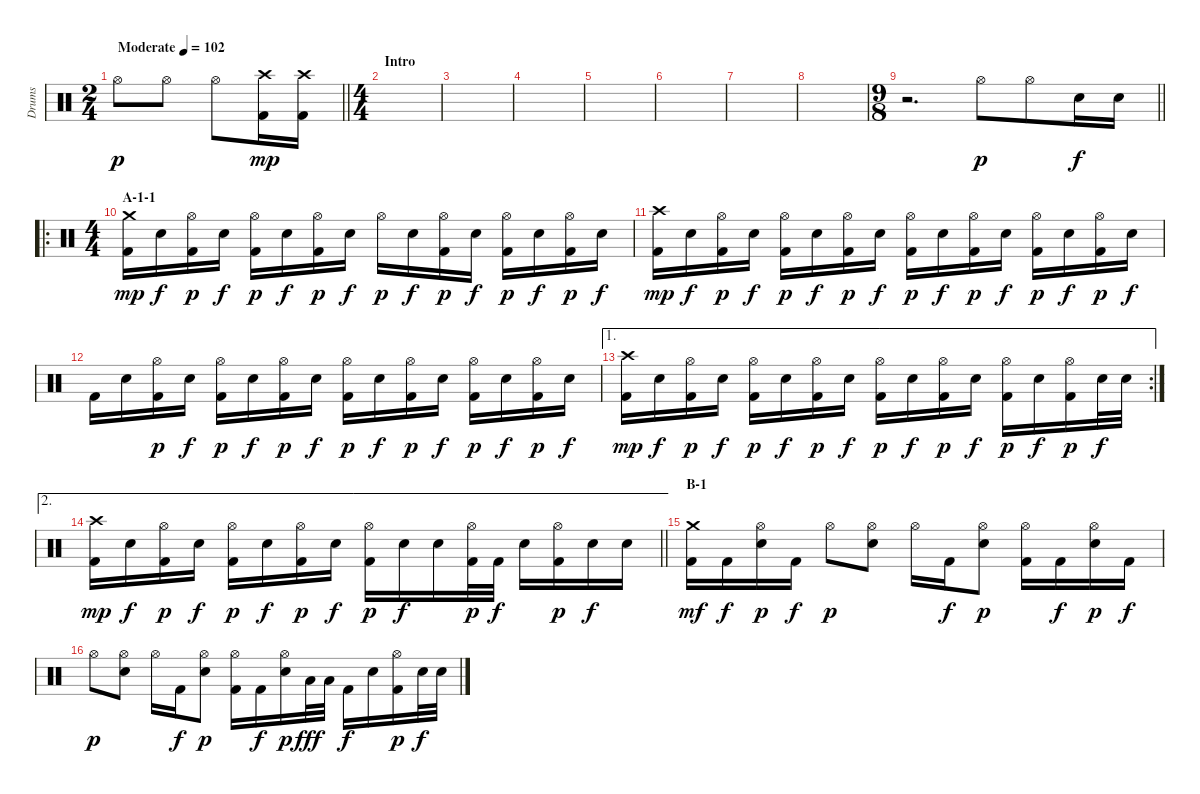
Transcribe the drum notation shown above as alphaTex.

\track ("Drums" "Drums") {instrument percussion}
\staff {score}
\articulation defaults
\ts (2 4)
\tempo (102 "Moderate")
\clef neutral
\barLineRight lightlight
\ks c "Hi-Hat (open)".8{dy p} "Hi-Hat (open)".8 "Hi-Hat (open)".8
("Crash high (hit)" "Kick (hit) 2").16{dy mp} ("Crash high (hit)" "Kick (hit) 2").16 |
\ts (4 4)
\section ("" "Intro")
|
|
|
|
|
|
|
\ts (9 8)
\barLineRight lightlight
r.2{d} "Hi-Hat (open)".8{dy p} "Hi-Hat (open)".8 "Electric Snare (hit)".16{dy f} "Electric Snare (hit)".16 |
\ro
\ts (4 4)
\section ("" "A-1-1")
("Crash medium (hit)" "Kick (hit) 2").16{dy mp} "Electric Snare (hit)".16{dy f} ("Hi-Hat (open)" "Kick (hit) 2").16{dy p} "Electric Snare (hit)".16{dy f} ("Hi-Hat (open)" "Kick (hit) 2").16{dy p} "Electric Snare (hit)".16{dy f} ("Hi-Hat (open)" "Kick (hit) 2").16{dy p} "Electric Snare (hit)".16{dy f} "Hi-Hat (open)".16{dy p} "Electric Snare (hit)".16{dy f} ("Hi-Hat (open)" "Kick (hit) 2").16{dy p} "Electric Snare (hit)".16{dy f} ("Hi-Hat (open)" "Kick (hit) 2").16{dy p} "Electric Snare (hit)".16{dy f} ("Hi-Hat (open)" "Kick (hit) 2").16{dy p} "Electric Snare (hit)".16{dy f} |
("Crash high (hit)" "Kick (hit) 2").16{dy mp} "Electric Snare (hit)".16{dy f} ("Hi-Hat (open)" "Kick (hit) 2").16{dy p} "Electric Snare (hit)".16{dy f} ("Hi-Hat (open)" "Kick (hit) 2").16{dy p} "Electric Snare (hit)".16{dy f} ("Hi-Hat (open)" "Kick (hit) 2").16{dy p} "Electric Snare (hit)".16{dy f} ("Hi-Hat (open)" "Kick (hit) 2").16{dy p} "Electric Snare (hit)".16{dy f} ("Hi-Hat (open)" "Kick (hit) 2").16{dy p} "Electric Snare (hit)".16{dy f} ("Hi-Hat (open)" "Kick (hit) 2").16{dy p} "Electric Snare (hit)".16{dy f} ("Hi-Hat (open)" "Kick (hit) 2").16{dy p} "Electric Snare (hit)".16{dy f} |
"Kick (hit) 2".16 "Electric Snare (hit)".16 ("Hi-Hat (open)" "Kick (hit) 2").16{dy p} "Electric Snare (hit)".16{dy f} ("Hi-Hat (open)" "Kick (hit) 2").16{dy p} "Electric Snare (hit)".16{dy f} ("Hi-Hat (open)" "Kick (hit) 2").16{dy p} "Electric Snare (hit)".16{dy f} ("Hi-Hat (open)" "Kick (hit) 2").16{dy p} "Electric Snare (hit)".16{dy f} ("Hi-Hat (open)" "Kick (hit) 2").16{dy p} "Electric Snare (hit)".16{dy f} ("Hi-Hat (open)" "Kick (hit) 2").16{dy p} "Electric Snare (hit)".16{dy f} ("Hi-Hat (open)" "Kick (hit) 2").16{dy p} "Electric Snare (hit)".16{dy f} |
\ae 1
\rc 2
("Crash high (hit)" "Kick (hit) 2").16{dy mp} "Electric Snare (hit)".16{dy f} ("Hi-Hat (open)" "Kick (hit) 2").16{dy p} "Electric Snare (hit)".16{dy f} ("Hi-Hat (open)" "Kick (hit) 2").16{dy p} "Electric Snare (hit)".16{dy f} ("Hi-Hat (open)" "Kick (hit) 2").16{dy p} "Electric Snare (hit)".16{dy f} ("Hi-Hat (open)" "Kick (hit) 2").16{dy p} "Electric Snare (hit)".16{dy f} ("Hi-Hat (open)" "Kick (hit) 2").16{dy p} "Electric Snare (hit)".16{dy f} ("Hi-Hat (open)" "Kick (hit) 2").16{dy p} "Electric Snare (hit)".16{dy f} ("Hi-Hat (open)" "Kick (hit) 2").16{dy p} "Electric Snare (hit)".32{dy f} "Electric Snare (hit)".32 |
\ae 2
\barLineRight lightlight
("Crash high (hit)" "Kick (hit) 2").16{dy mp} "Electric Snare (hit)".16{dy f} ("Hi-Hat (open)" "Kick (hit) 2").16{dy p} "Electric Snare (hit)".16{dy f} ("Hi-Hat (open)" "Kick (hit) 2").16{dy p} "Electric Snare (hit)".16{dy f} ("Hi-Hat (open)" "Kick (hit) 2").16{dy p} "Electric Snare (hit)".16{dy f} ("Hi-Hat (open)" "Kick (hit) 2").16{dy p} "Electric Snare (hit)".16{dy f} "Electric Snare (hit)".16 ("Hi-Hat (open)" "Kick (hit) 2").32{dy p} "Kick (hit) 2".32{dy f} "Electric Snare (hit)".16 ("Hi-Hat (open)" "Kick (hit) 2").16{dy p} "Electric Snare (hit)".16{dy f} "Electric Snare (hit)".16 |
\section ("" "B-1")
("Crash medium (hit)" "Kick (hit) 2").16{dy mf} "Kick (hit) 2".16{dy f} ("Hi-Hat (open)" "Electric Snare (hit)").16{dy p} "Kick (hit) 2".16{dy f} "Hi-Hat (open)".8{dy p} ("Hi-Hat (open)" "Electric Snare (hit)").8 "Hi-Hat (open)".16 "Kick (hit) 2".16{dy f} ("Hi-Hat (open)" "Electric Snare (hit)").8{dy p} ("Hi-Hat (open)" "Kick (hit) 2").16 "Kick (hit) 2".16{dy f} ("Hi-Hat (open)" "Electric Snare (hit)").16{dy p} "Kick (hit) 2".16{dy f} |
"Hi-Hat (open)".8{dy p} ("Hi-Hat (open)" "Electric Snare (hit)").8 "Hi-Hat (open)".16 "Kick (hit) 2".16{dy f} ("Hi-Hat (open)" "Electric Snare (hit)").8{dy p} ("Hi-Hat (open)" "Kick (hit) 2").16 "Kick (hit) 2".16{dy f} ("Hi-Hat (open)" "Electric Snare (hit)").16{dy p} "Low Tom (hit)".32{dy fff} "Low Tom (hit)".32 "Kick (hit) 2".16{dy f} "Electric Snare (hit)".16 ("Hi-Hat (open)" "Kick (hit) 2").16{dy p} "Electric Snare (hit)".32{dy f} "Electric Snare (hit)".32
